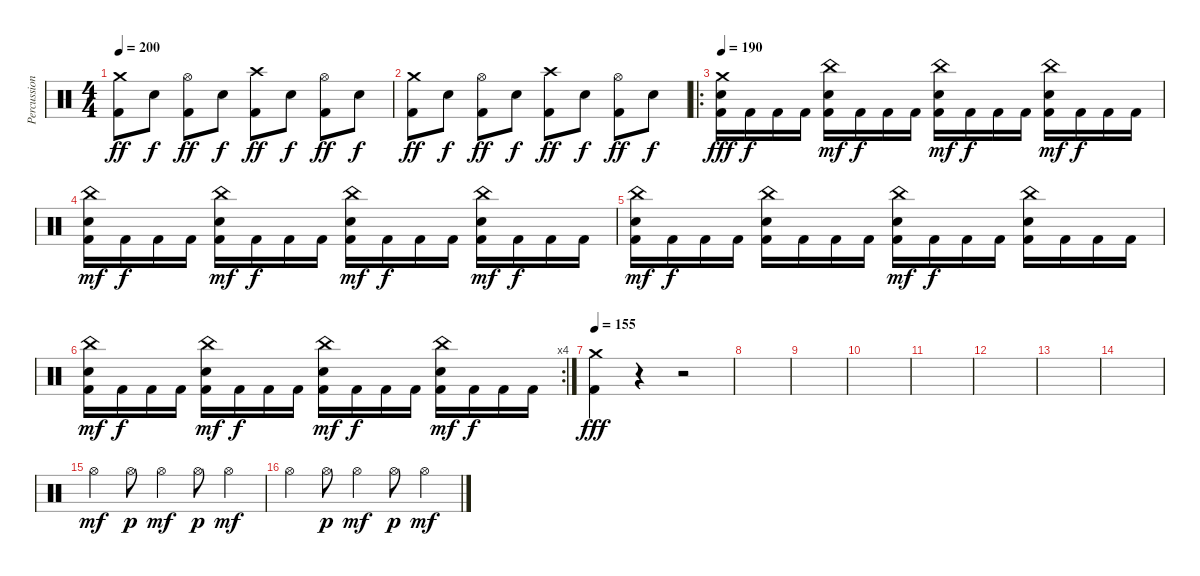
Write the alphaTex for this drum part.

\track ("Percussions" "Percussion") {instrument percussion}
\staff {score}
\articulation defaults
\ts (4 4)
\tempo 200
\clef neutral
\ks c
("Crash medium (hit)" "Kick (hit) 2").8{dy ff} "Electric Snare (hit)".8{dy f} ("Hi-Hat (open)" "Kick (hit) 2").8{dy ff} "Electric Snare (hit)".8{dy f} ("Crash high (hit)" "Kick (hit) 2").8{dy ff} "Electric Snare (hit)".8{dy f} ("Hi-Hat (open)" "Kick (hit) 2").8{dy ff} "Electric Snare (hit)".8{dy f} |
("Crash medium (hit)" "Kick (hit) 2").8{dy ff} "Electric Snare (hit)".8{dy f} ("Hi-Hat (open)" "Kick (hit) 2").8{dy ff} "Electric Snare (hit)".8{dy f} ("Crash high (hit)" "Kick (hit) 2").8{dy ff} "Electric Snare (hit)".8{dy f} ("Hi-Hat (open)" "Kick (hit) 2").8{dy ff} "Electric Snare (hit)".8{dy f} |
\ro
\tempo 190
("Crash medium (hit)" "Electric Snare (hit)" "Kick (hit) 2").16{dy fff} "Kick (hit) 2".16{dy f} "Kick (hit) 2".16 "Kick (hit) 2".16 ("China (hit)" "Electric Snare (hit)" "Kick (hit) 2").16{dy mf} "Kick (hit) 2".16{dy f} "Kick (hit) 2".16 "Kick (hit) 2".16 ("China (hit)" "Electric Snare (hit)" "Kick (hit) 2").16{dy mf} "Kick (hit) 2".16{dy f} "Kick (hit) 2".16 "Kick (hit) 2".16 ("China (hit)" "Electric Snare (hit)" "Kick (hit) 2").16{dy mf} "Kick (hit) 2".16{dy f} "Kick (hit) 2".16 "Kick (hit) 2".16 |
("China (hit)" "Electric Snare (hit)" "Kick (hit) 2").16{dy mf} "Kick (hit) 2".16{dy f} "Kick (hit) 2".16 "Kick (hit) 2".16 ("China (hit)" "Electric Snare (hit)" "Kick (hit) 2").16{dy mf} "Kick (hit) 2".16{dy f} "Kick (hit) 2".16 "Kick (hit) 2".16 ("China (hit)" "Electric Snare (hit)" "Kick (hit) 2").16{dy mf} "Kick (hit) 2".16{dy f} "Kick (hit) 2".16 "Kick (hit) 2".16 ("China (hit)" "Electric Snare (hit)" "Kick (hit) 2").16{dy mf} "Kick (hit) 2".16{dy f} "Kick (hit) 2".16 "Kick (hit) 2".16 |
("China (hit)" "Electric Snare (hit)" "Kick (hit) 2").16{dy mf} "Kick (hit) 2".16{dy f} "Kick (hit) 2".16 "Kick (hit) 2".16 ("China (hit)" "Electric Snare (hit)" "Kick (hit) 2").16 "Kick (hit) 2".16 "Kick (hit) 2".16 "Kick (hit) 2".16 ("China (hit)" "Electric Snare (hit)" "Kick (hit) 2").16{dy mf} "Kick (hit) 2".16{dy f} "Kick (hit) 2".16 "Kick (hit) 2".16 ("China (hit)" "Electric Snare (hit)" "Kick (hit) 2").16 "Kick (hit) 2".16 "Kick (hit) 2".16 "Kick (hit) 2".16 |
\rc 4
("China (hit)" "Electric Snare (hit)" "Kick (hit) 2").16{dy mf} "Kick (hit) 2".16{dy f} "Kick (hit) 2".16 "Kick (hit) 2".16 ("China (hit)" "Electric Snare (hit)" "Kick (hit) 2").16{dy mf} "Kick (hit) 2".16{dy f} "Kick (hit) 2".16 "Kick (hit) 2".16 ("China (hit)" "Electric Snare (hit)" "Kick (hit) 2").16{dy mf} "Kick (hit) 2".16{dy f} "Kick (hit) 2".16 "Kick (hit) 2".16 ("China (hit)" "Electric Snare (hit)" "Kick (hit) 2").16{dy mf} "Kick (hit) 2".16{dy f} "Kick (hit) 2".16 "Kick (hit) 2".16 |
\tempo 155
("Crash medium (hit)" "Kick (hit) 2").4{dy fff} r.4 r.2 |
|
|
|
|
|
|
|
"Hi-Hat (open)".4{dy mf} "Hi-Hat (open)".8{dy p} "Hi-Hat (open)".4{dy mf} "Hi-Hat (open)".8{dy p} "Hi-Hat (open)".4{dy mf} |
"Hi-Hat (open)".4 "Hi-Hat (open)".8{dy p} "Hi-Hat (open)".4{dy mf} "Hi-Hat (open)".8{dy p} "Hi-Hat (open)".4{dy mf}
